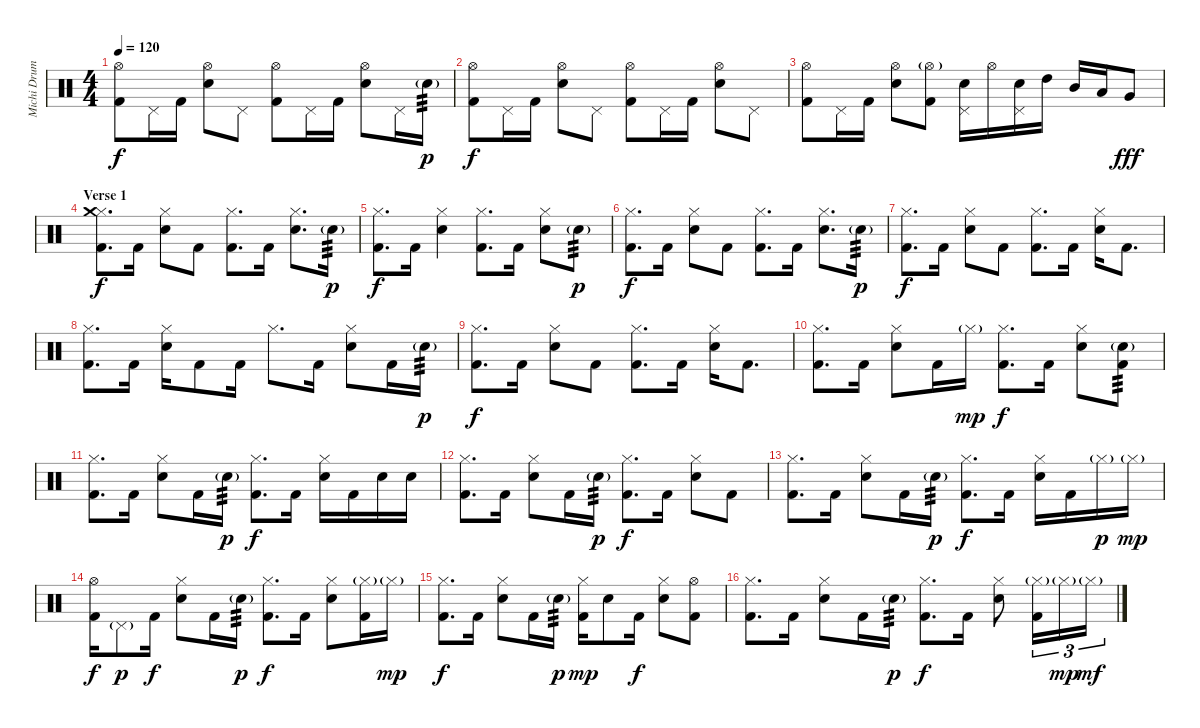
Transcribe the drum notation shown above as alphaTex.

\track ("Michi Drums" "Michi Drum") {instrument percussion}
\staff {score}
\articulation defaults
\ts (4 4)
\tempo 120
\clef neutral
\ks c
("Hi-Hat (open)" "Kick (hit) 2").8{dy f} "Pedal Hi-Hat (hit)".16 "Kick (hit) 2".16 ("Hi-Hat (open)" "Electric Snare (hit)").8 "Pedal Hi-Hat (hit)".8 ("Hi-Hat (open)" "Kick (hit) 2").8 "Pedal Hi-Hat (hit)".16 "Kick (hit) 2".16 ("Hi-Hat (open)" "Electric Snare (hit)").8 "Pedal Hi-Hat (hit)".16 "Electric Snare (hit)"{g}.16{tp 3 dy p} |
("Hi-Hat (open)" "Kick (hit) 2").8{dy f} "Pedal Hi-Hat (hit)".16 "Kick (hit) 2".16 ("Hi-Hat (open)" "Electric Snare (hit)").8 "Pedal Hi-Hat (hit)".8 ("Hi-Hat (open)" "Kick (hit) 2").8 "Pedal Hi-Hat (hit)".16 "Kick (hit) 2".16 ("Hi-Hat (open)" "Electric Snare (hit)").8 "Pedal Hi-Hat (hit)".8 |
("Hi-Hat (open)" "Kick (hit) 2").8 "Pedal Hi-Hat (hit)".16 "Kick (hit) 2".16 ("Hi-Hat (open)" "Electric Snare (hit)").8 ("Hi-Hat (open)"{g} "Kick (hit) 2").8 ("Pedal Hi-Hat (hit)" "Electric Snare (hit)").16 "Hi-Hat (open)".16 ("Pedal Hi-Hat (hit)" "Electric Snare (hit)").16 "High Tom (hit)".16 "Mid Tom (hit)".16 "Low Tom (hit)".16 "Very Low Tom (hit)".8{dy fff} |
\section ("" "Verse 1")
("Hi-Hat (closed)" "Crash medium (hit)" "Kick (hit) 2").8{d dy f} "Kick (hit) 2".16 ("Hi-Hat (closed)" "Electric Snare (hit)").8 "Kick (hit) 2".8 ("Hi-Hat (closed)" "Kick (hit) 2").8{d} "Kick (hit) 2".16 ("Hi-Hat (closed)" "Electric Snare (hit)").8{d} "Electric Snare (hit)"{g}.16{tp 3 dy p} |
("Hi-Hat (closed)" "Kick (hit) 2").8{d dy f} "Kick (hit) 2".16 ("Hi-Hat (closed)" "Electric Snare (hit)").4 ("Hi-Hat (closed)" "Kick (hit) 2").8{d} "Kick (hit) 2".16 ("Hi-Hat (closed)" "Electric Snare (hit)").8 "Electric Snare (hit)"{g}.8{tp 3 dy p} |
("Hi-Hat (closed)" "Kick (hit) 2").8{d dy f} "Kick (hit) 2".16 ("Hi-Hat (closed)" "Electric Snare (hit)").8 "Kick (hit) 2".8 ("Hi-Hat (closed)" "Kick (hit) 2").8{d} "Kick (hit) 2".16 ("Hi-Hat (closed)" "Electric Snare (hit)").8{d} "Electric Snare (hit)"{g}.16{tp 3 dy p} |
("Hi-Hat (closed)" "Kick (hit) 2").8{d dy f} "Kick (hit) 2".16 ("Hi-Hat (closed)" "Electric Snare (hit)").8 "Kick (hit) 2".8 ("Hi-Hat (closed)" "Kick (hit) 2").8{d} "Kick (hit) 2".16 ("Hi-Hat (closed)" "Electric Snare (hit)").16 "Kick (hit) 2".8{d} |
("Hi-Hat (closed)" "Kick (hit) 2").8{d} "Kick (hit) 2".16 ("Hi-Hat (closed)" "Electric Snare (hit)").16 "Kick (hit) 2".8 "Kick (hit) 2".16 "Hi-Hat (closed)".8{d} "Kick (hit) 2".16 ("Hi-Hat (closed)" "Electric Snare (hit)").8 "Kick (hit) 2".16 "Electric Snare (hit)"{g}.16{tp 3 dy p} |
("Hi-Hat (closed)" "Kick (hit) 2").8{d dy f} "Kick (hit) 2".16 ("Hi-Hat (closed)" "Electric Snare (hit)").8 "Kick (hit) 2".8 ("Hi-Hat (closed)" "Kick (hit) 2").8{d} "Kick (hit) 2".16 ("Hi-Hat (closed)" "Electric Snare (hit)").16 "Kick (hit) 2".8{d} |
("Hi-Hat (closed)" "Kick (hit) 2").8{d} "Kick (hit) 2".16 ("Hi-Hat (closed)" "Electric Snare (hit)").8 "Kick (hit) 2".16 "Hi-Hat (closed)"{g}.16{dy mp} ("Hi-Hat (closed)" "Kick (hit) 2").8{d dy f} "Kick (hit) 2".16 ("Hi-Hat (closed)" "Electric Snare (hit)").8 ("Electric Snare (hit)"{g} "Kick (hit) 2").8{tp 3} |
("Hi-Hat (closed)" "Kick (hit) 2").8{d} "Kick (hit) 2".16 ("Hi-Hat (closed)" "Electric Snare (hit)").8 "Kick (hit) 2".16 "Electric Snare (hit)"{g}.16{tp 3 dy p} ("Hi-Hat (closed)" "Kick (hit) 2").8{d dy f} "Kick (hit) 2".16 ("Hi-Hat (closed)" "Electric Snare (hit)").16 "Kick (hit) 2".16 "Electric Snare (hit)".16 "Electric Snare (hit)".16 |
("Hi-Hat (closed)" "Kick (hit) 2").8{d} "Kick (hit) 2".16 ("Hi-Hat (closed)" "Electric Snare (hit)").8 "Kick (hit) 2".16 "Electric Snare (hit)"{g}.16{tp 3 dy p} ("Hi-Hat (closed)" "Kick (hit) 2").8{d dy f} "Kick (hit) 2".16 ("Hi-Hat (closed)" "Electric Snare (hit)").8 "Kick (hit) 2".8 |
("Hi-Hat (closed)" "Kick (hit) 2").8{d} "Kick (hit) 2".16 ("Hi-Hat (closed)" "Electric Snare (hit)").8 "Kick (hit) 2".16 "Electric Snare (hit)"{g}.16{tp 3 dy p} ("Hi-Hat (closed)" "Kick (hit) 2").8{d dy f} "Kick (hit) 2".16 ("Hi-Hat (closed)" "Electric Snare (hit)").16 "Kick (hit) 2".16 "Hi-Hat (closed)"{g}.16{dy p} "Hi-Hat (closed)"{g}.16{dy mp} |
("Hi-Hat (open)" "Kick (hit) 2").16{dy f} "Pedal Hi-Hat (hit)"{g}.8{dy p} "Kick (hit) 2".16{dy f} ("Hi-Hat (closed)" "Electric Snare (hit)").8 "Kick (hit) 2".16 "Electric Snare (hit)"{g}.16{tp 3 dy p} ("Hi-Hat (closed)" "Kick (hit) 2").8{d dy f} "Kick (hit) 2".16 ("Hi-Hat (closed)" "Electric Snare (hit)").8 ("Hi-Hat (closed)"{g} "Kick (hit) 2").16 "Hi-Hat (closed)"{g}.16{dy mp} |
("Hi-Hat (closed)" "Kick (hit) 2").8{d dy f} "Kick (hit) 2".16 ("Hi-Hat (closed)" "Electric Snare (hit)").8 "Kick (hit) 2".16 "Electric Snare (hit)"{g}.16{tp 3 dy p} ("Hi-Hat (closed)" "Kick (hit) 2").16{dy mp} "Electric Snare (hit)".8 "Kick (hit) 2".16{dy f} ("Hi-Hat (closed)" "Electric Snare (hit)").8 ("Hi-Hat (open)" "Kick (hit) 2").8 |
("Hi-Hat (closed)" "Kick (hit) 2").8{d} "Kick (hit) 2".16 ("Hi-Hat (closed)" "Electric Snare (hit)").8 "Kick (hit) 2".16 "Electric Snare (hit)"{g}.16{tp 3 dy p} ("Hi-Hat (closed)" "Kick (hit) 2").8{d dy f} "Kick (hit) 2".16 ("Hi-Hat (closed)" "Electric Snare (hit)").8 ("Hi-Hat (closed)"{g} "Kick (hit) 2").16{tu (3 2)} "Hi-Hat (closed)"{g}.16{tu (3 2) dy mp} "Hi-Hat (closed)"{g}.16{tu (3 2) dy mf}
